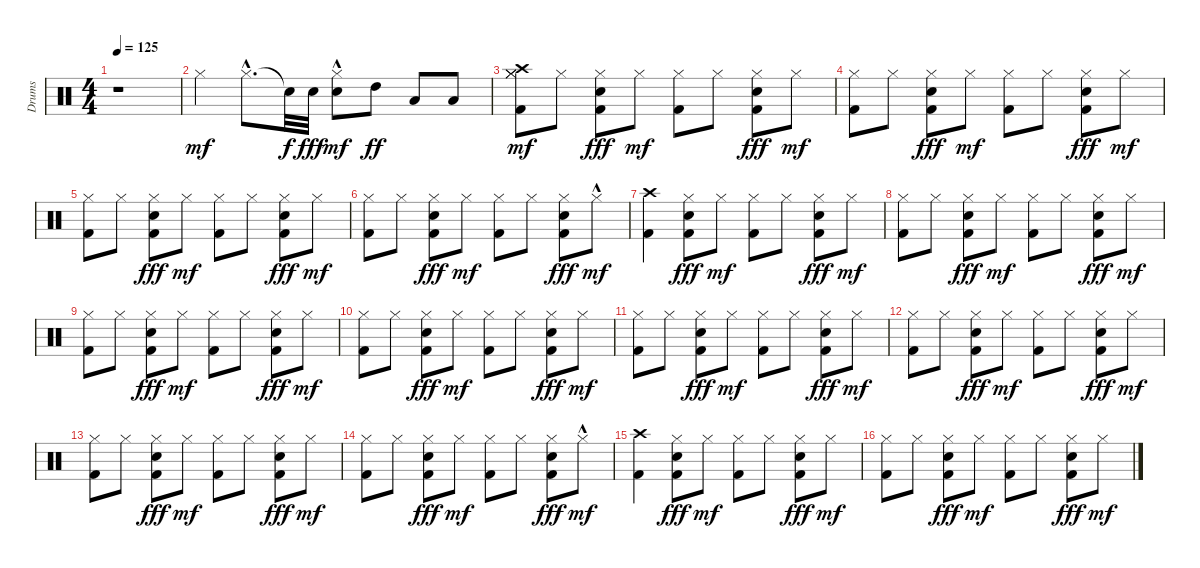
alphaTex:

\track ("Drums" "Drums") {instrument percussion}
\staff {score}
\articulation defaults
\ts (4 4)
\tempo 125
\clef neutral
\ks c
r.1{dy mf} |
"Hi-Hat (closed)".4{volume 14} "Hi-Hat (closed)"{hac}.8{d} "Snare (hit)"{t}.32{dy f} "Snare (hit) 2".32{dy fff} ("Snare (hit) 2"{hac} "Hi-Hat (closed)").8{dy mf} "High Tom (hit)".8{dy ff} "Low Tom (hit)".8 "Low Floor Tom (hit)".8 |
("Kick (hit) 2" "Hi-Hat (closed)" "Hi-Hat (closed)" "Hi-Hat (closed)" "Crash high (hit)").8{dy mf} "Hi-Hat (closed)".8 ("Snare (hit) 2" "Kick (hit) 2" "Hi-Hat (closed)").8{dy fff} "Hi-Hat (closed)".8{dy mf} ("Kick (hit) 2" "Hi-Hat (closed)").8 "Hi-Hat (closed)".8 ("Snare (hit) 2" "Kick (hit) 2" "Hi-Hat (closed)").8{dy fff} "Hi-Hat (closed)".8{dy mf} |
("Kick (hit) 2" "Hi-Hat (closed)").8 "Hi-Hat (closed)".8 ("Snare (hit) 2" "Kick (hit) 2" "Hi-Hat (closed)").8{dy fff} "Hi-Hat (closed)".8{dy mf} ("Kick (hit) 2" "Hi-Hat (closed)").8 "Hi-Hat (closed)".8 ("Snare (hit) 2" "Kick (hit) 2" "Hi-Hat (closed)").8{dy fff} "Hi-Hat (closed)".8{dy mf} |
("Kick (hit) 2" "Hi-Hat (closed)").8 "Hi-Hat (closed)".8 ("Snare (hit) 2" "Kick (hit) 2" "Hi-Hat (closed)").8{dy fff} "Hi-Hat (closed)".8{dy mf} ("Kick (hit) 2" "Hi-Hat (closed)").8 "Hi-Hat (closed)".8 ("Snare (hit) 2" "Kick (hit) 2" "Hi-Hat (closed)").8{dy fff} "Hi-Hat (closed)".8{dy mf} |
("Kick (hit) 2" "Hi-Hat (closed)").8 "Hi-Hat (closed)".8 ("Snare (hit) 2" "Kick (hit) 2" "Hi-Hat (closed)").8{dy fff} "Hi-Hat (closed)".8{dy mf} ("Kick (hit) 2" "Hi-Hat (closed)").8 "Hi-Hat (closed)".8 ("Snare (hit) 2" "Kick (hit) 2" "Hi-Hat (closed)").8{dy fff} "Hi-Hat (closed)"{hac}.8{dy mf} |
("Kick (hit) 2" "Crash high (hit)").4 ("Snare (hit) 2" "Kick (hit) 2" "Hi-Hat (closed)").8{dy fff} "Hi-Hat (closed)".8{dy mf} ("Kick (hit) 2" "Hi-Hat (closed)").8 "Hi-Hat (closed)".8 ("Snare (hit) 2" "Kick (hit) 2" "Hi-Hat (closed)").8{dy fff} "Hi-Hat (closed)".8{dy mf} |
("Kick (hit) 2" "Hi-Hat (closed)").8 "Hi-Hat (closed)".8 ("Snare (hit) 2" "Kick (hit) 2" "Hi-Hat (closed)").8{dy fff} "Hi-Hat (closed)".8{dy mf} ("Kick (hit) 2" "Hi-Hat (closed)").8 "Hi-Hat (closed)".8 ("Snare (hit) 2" "Kick (hit) 2" "Hi-Hat (closed)").8{dy fff} "Hi-Hat (closed)".8{dy mf} |
("Kick (hit) 2" "Hi-Hat (closed)").8 "Hi-Hat (closed)".8 ("Snare (hit) 2" "Kick (hit) 2" "Hi-Hat (closed)").8{dy fff} "Hi-Hat (closed)".8{dy mf} ("Kick (hit) 2" "Hi-Hat (closed)").8 "Hi-Hat (closed)".8 ("Snare (hit) 2" "Kick (hit) 2" "Hi-Hat (closed)").8{dy fff} "Hi-Hat (closed)".8{dy mf} |
("Kick (hit) 2" "Hi-Hat (closed)").8 "Hi-Hat (closed)".8 ("Snare (hit) 2" "Kick (hit) 2" "Hi-Hat (closed)").8{dy fff} "Hi-Hat (closed)".8{dy mf} ("Kick (hit) 2" "Hi-Hat (closed)").8 "Hi-Hat (closed)".8 ("Snare (hit) 2" "Kick (hit) 2" "Hi-Hat (closed)").8{dy fff} "Hi-Hat (closed)".8{dy mf} |
("Kick (hit) 2" "Hi-Hat (closed)").8 "Hi-Hat (closed)".8 ("Snare (hit) 2" "Kick (hit) 2" "Hi-Hat (closed)").8{dy fff} "Hi-Hat (closed)".8{dy mf} ("Kick (hit) 2" "Hi-Hat (closed)").8 "Hi-Hat (closed)".8 ("Snare (hit) 2" "Kick (hit) 2" "Hi-Hat (closed)").8{dy fff} "Hi-Hat (closed)".8{dy mf} |
("Kick (hit) 2" "Hi-Hat (closed)").8 "Hi-Hat (closed)".8 ("Snare (hit) 2" "Kick (hit) 2" "Hi-Hat (closed)").8{dy fff} "Hi-Hat (closed)".8{dy mf} ("Kick (hit) 2" "Hi-Hat (closed)").8 "Hi-Hat (closed)".8 ("Snare (hit) 2" "Kick (hit) 2" "Hi-Hat (closed)").8{dy fff} "Hi-Hat (closed)".8{dy mf} |
("Kick (hit) 2" "Hi-Hat (closed)").8 "Hi-Hat (closed)".8 ("Snare (hit) 2" "Kick (hit) 2" "Hi-Hat (closed)").8{dy fff} "Hi-Hat (closed)".8{dy mf} ("Kick (hit) 2" "Hi-Hat (closed)").8 "Hi-Hat (closed)".8 ("Snare (hit) 2" "Kick (hit) 2" "Hi-Hat (closed)").8{dy fff} "Hi-Hat (closed)".8{dy mf} |
("Kick (hit) 2" "Hi-Hat (closed)").8 "Hi-Hat (closed)".8 ("Snare (hit) 2" "Kick (hit) 2" "Hi-Hat (closed)").8{dy fff} "Hi-Hat (closed)".8{dy mf} ("Kick (hit) 2" "Hi-Hat (closed)").8 "Hi-Hat (closed)".8 ("Snare (hit) 2" "Kick (hit) 2" "Hi-Hat (closed)").8{dy fff} "Hi-Hat (closed)"{hac}.8{dy mf} |
("Kick (hit) 2" "Crash high (hit)").4 ("Snare (hit) 2" "Kick (hit) 2" "Hi-Hat (closed)").8{dy fff} "Hi-Hat (closed)".8{dy mf} ("Kick (hit) 2" "Hi-Hat (closed)").8 "Hi-Hat (closed)".8 ("Snare (hit) 2" "Kick (hit) 2" "Hi-Hat (closed)").8{dy fff} "Hi-Hat (closed)".8{dy mf} |
("Kick (hit) 2" "Hi-Hat (closed)").8 "Hi-Hat (closed)".8 ("Snare (hit) 2" "Kick (hit) 2" "Hi-Hat (closed)").8{dy fff} "Hi-Hat (closed)".8{dy mf} ("Kick (hit) 2" "Hi-Hat (closed)").8 "Hi-Hat (closed)".8 ("Snare (hit) 2" "Kick (hit) 2" "Hi-Hat (closed)").8{dy fff} "Hi-Hat (closed)".8{dy mf}
